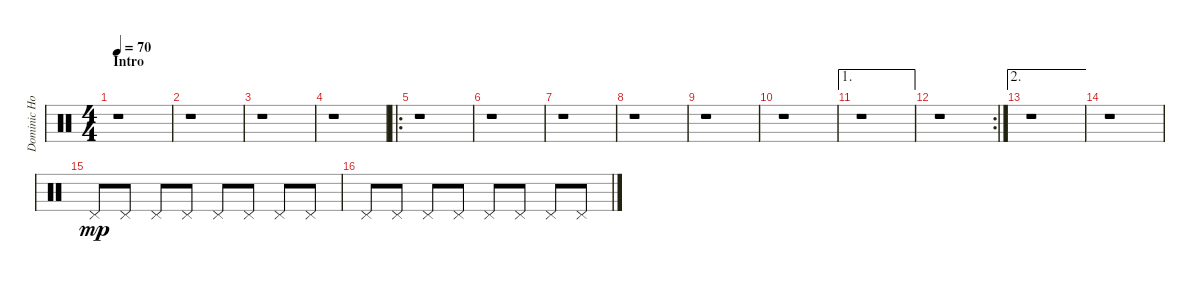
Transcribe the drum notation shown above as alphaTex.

\track ("Dominic Howard" "Dominic Ho") {instrument percussion}
\staff {score}
\articulation defaults
\ts (4 4)
\section ("" "Intro")
\tempo 70
\clef neutral
\ks c
r.1{dy mp} |
r.1 |
r.1 |
r.1 |
\ro
r.1 |
r.1 |
r.1 |
r.1 |
r.1 |
r.1 |
\ae 1
r.1 |
\rc 2
r.1 |
\ae 2
r.1 |
r.1 |
"Pedal Hi-Hat (hit)".8 "Pedal Hi-Hat (hit)".8 "Pedal Hi-Hat (hit)".8 "Pedal Hi-Hat (hit)".8 "Pedal Hi-Hat (hit)".8 "Pedal Hi-Hat (hit)".8 "Pedal Hi-Hat (hit)".8 "Pedal Hi-Hat (hit)".8 |
"Pedal Hi-Hat (hit)".8 "Pedal Hi-Hat (hit)".8 "Pedal Hi-Hat (hit)".8 "Pedal Hi-Hat (hit)".8 "Pedal Hi-Hat (hit)".8 "Pedal Hi-Hat (hit)".8 "Pedal Hi-Hat (hit)".8 "Pedal Hi-Hat (hit)".8
